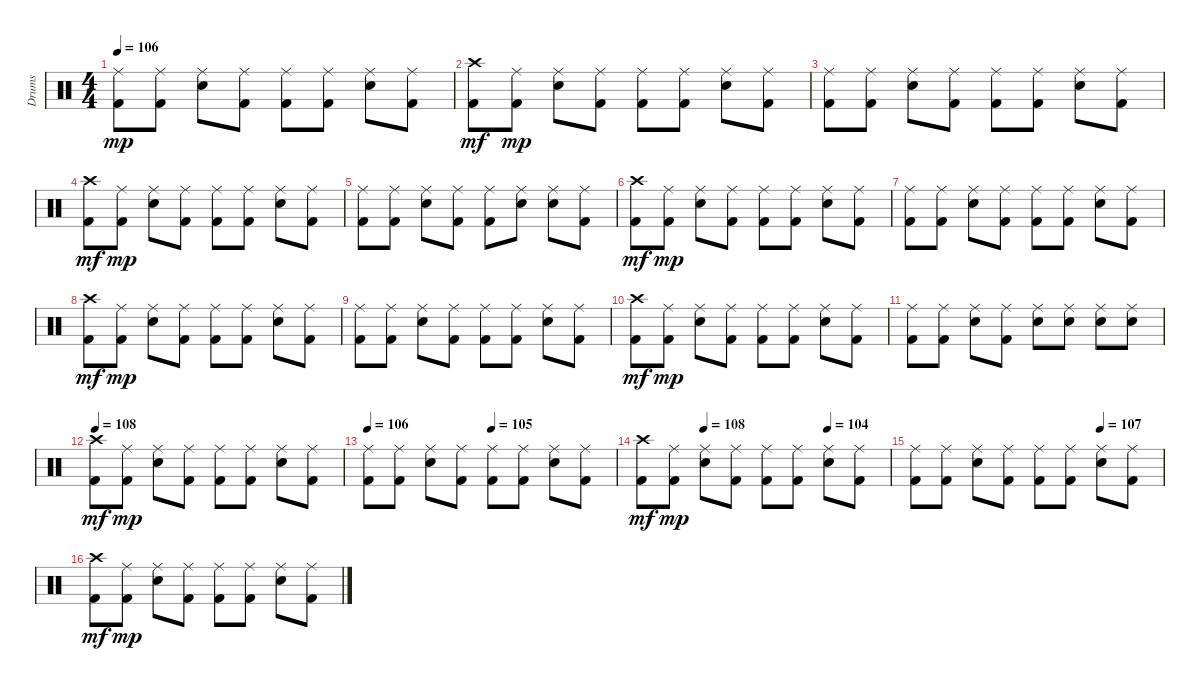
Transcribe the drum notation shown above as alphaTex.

\track ("Drums" "Drums") {instrument percussion}
\staff {score}
\articulation defaults
\ts (4 4)
\tempo 106
\clef neutral
\ks c
("Ride (middle)" "Kick (hit) 2").8{dy mp} ("Ride (middle)" "Kick (hit) 2").8 ("Ride (middle)" "Electric Snare (hit)").8 ("Ride (middle)" "Kick (hit) 2").8 ("Kick (hit) 2" "Ride (middle)").8 ("Ride (middle)" "Kick (hit) 2").8 ("Ride (middle)" "Electric Snare (hit)").8 ("Ride (middle)" "Kick (hit) 2").8 |
("Crash high (hit)" "Kick (hit) 2").8{dy mf} ("Kick (hit) 2" "Ride (middle)").8{dy mp} ("Electric Snare (hit)" "Ride (middle)").8 ("Ride (middle)" "Kick (hit) 2").8 ("Kick (hit) 2" "Ride (middle)").8 ("Ride (middle)" "Kick (hit) 2").8 ("Ride (middle)" "Electric Snare (hit)").8 ("Ride (middle)" "Kick (hit) 2").8 |
("Kick (hit) 2" "Ride (middle)").8 ("Kick (hit) 2" "Ride (middle)").8 ("Ride (middle)" "Electric Snare (hit)").8 ("Kick (hit) 2" "Ride (middle)").8 ("Ride (middle)" "Kick (hit) 2").8 ("Ride (middle)" "Kick (hit) 2").8 ("Electric Snare (hit)" "Ride (middle)").8 ("Kick (hit) 2" "Ride (middle)").8 |
("Kick (hit) 2" "Crash high (hit)").8{dy mf} ("Kick (hit) 2" "Ride (middle)").8{dy mp} ("Electric Snare (hit)" "Ride (middle)").8 ("Kick (hit) 2" "Ride (middle)").8 ("Kick (hit) 2" "Ride (middle)").8 ("Ride (middle)" "Kick (hit) 2").8 ("Ride (middle)" "Electric Snare (hit)").8 ("Kick (hit) 2" "Ride (middle)").8 |
("Kick (hit) 2" "Ride (middle)").8 ("Kick (hit) 2" "Ride (middle)").8 ("Electric Snare (hit)" "Ride (middle)").8 ("Ride (middle)" "Kick (hit) 2").8 ("Kick (hit) 2" "Ride (middle)").8 ("Electric Snare (hit)" "Ride (middle)").8 ("Ride (middle)" "Electric Snare (hit)").8 ("Ride (middle)" "Kick (hit) 2").8 |
("Kick (hit) 2" "Crash high (hit)").8{dy mf} ("Kick (hit) 2" "Ride (middle)").8{dy mp} ("Electric Snare (hit)" "Ride (middle)").8 ("Ride (middle)" "Kick (hit) 2").8 ("Ride (middle)" "Kick (hit) 2").8 ("Kick (hit) 2" "Ride (middle)").8 ("Ride (middle)" "Electric Snare (hit)").8 ("Kick (hit) 2" "Ride (middle)").8 |
("Kick (hit) 2" "Ride (middle)").8 ("Ride (middle)" "Kick (hit) 2").8 ("Ride (middle)" "Electric Snare (hit)").8 ("Ride (middle)" "Kick (hit) 2").8 ("Kick (hit) 2" "Ride (middle)").8 ("Kick (hit) 2" "Ride (middle)").8 ("Ride (middle)" "Electric Snare (hit)").8 ("Kick (hit) 2" "Ride (middle)").8 |
("Kick (hit) 2" "Crash high (hit)").8{dy mf} ("Kick (hit) 2" "Ride (middle)").8{dy mp} ("Electric Snare (hit)" "Ride (middle)").8 ("Kick (hit) 2" "Ride (middle)").8 ("Kick (hit) 2" "Ride (middle)").8 ("Kick (hit) 2" "Ride (middle)").8 ("Electric Snare (hit)" "Ride (middle)").8 ("Kick (hit) 2" "Ride (middle)").8 |
("Kick (hit) 2" "Ride (middle)").8 ("Kick (hit) 2" "Ride (middle)").8 ("Electric Snare (hit)" "Ride (middle)").8 ("Ride (middle)" "Kick (hit) 2").8 ("Ride (middle)" "Kick (hit) 2").8 ("Ride (middle)" "Kick (hit) 2").8 ("Electric Snare (hit)" "Ride (middle)").8 ("Kick (hit) 2" "Ride (middle)").8 |
("Kick (hit) 2" "Crash high (hit)").8{dy mf} ("Kick (hit) 2" "Ride (middle)").8{dy mp} ("Electric Snare (hit)" "Ride (middle)").8 ("Kick (hit) 2" "Ride (middle)").8 ("Kick (hit) 2" "Ride (middle)").8 ("Kick (hit) 2" "Ride (middle)").8 ("Electric Snare (hit)" "Ride (middle)").8 ("Ride (middle)" "Kick (hit) 2").8 |
("Ride (middle)" "Kick (hit) 2").8 ("Ride (middle)" "Kick (hit) 2").8 ("Electric Snare (hit)" "Ride (middle)").8 ("Ride (middle)" "Kick (hit) 2").8 ("Electric Snare (hit)" "Ride (middle)").8 ("Ride (middle)" "Electric Snare (hit)").8 ("Electric Snare (hit)" "Ride (middle)").8 ("Electric Snare (hit)" "Ride (middle)").8 |
\tempo 108
("Crash high (hit)" "Kick (hit) 2").8{dy mf} ("Kick (hit) 2" "Ride (middle)").8{dy mp} ("Ride (middle)" "Electric Snare (hit)").8 ("Ride (middle)" "Kick (hit) 2").8 ("Ride (middle)" "Kick (hit) 2").8 ("Ride (middle)" "Kick (hit) 2").8 ("Electric Snare (hit)" "Ride (middle)").8 ("Kick (hit) 2" "Ride (middle)").8 |
\tempo 106
\tempo (105 0.5)
("Kick (hit) 2" "Ride (middle)").8 ("Ride (middle)" "Kick (hit) 2").8 ("Electric Snare (hit)" "Ride (middle)").8 ("Ride (middle)" "Kick (hit) 2").8 ("Kick (hit) 2" "Ride (middle)").8 ("Kick (hit) 2" "Ride (middle)").8 ("Electric Snare (hit)" "Ride (middle)").8 ("Ride (middle)" "Kick (hit) 2").8 |
\tempo (108 0.25)
\tempo (104 0.75)
("Kick (hit) 2" "Crash high (hit)").8{dy mf} ("Ride (middle)" "Kick (hit) 2").8{dy mp} ("Ride (middle)" "Electric Snare (hit)").8 ("Ride (middle)" "Kick (hit) 2").8 ("Ride (middle)" "Kick (hit) 2").8 ("Ride (middle)" "Kick (hit) 2").8 ("Ride (middle)" "Electric Snare (hit)").8 ("Kick (hit) 2" "Ride (middle)").8 |
\tempo (107 0.75)
("Ride (middle)" "Kick (hit) 2").8 ("Kick (hit) 2" "Ride (middle)").8 ("Electric Snare (hit)" "Ride (middle)").8 ("Ride (middle)" "Kick (hit) 2").8 ("Ride (middle)" "Kick (hit) 2").8 ("Ride (middle)" "Kick (hit) 2").8 ("Ride (middle)" "Electric Snare (hit)").8 ("Ride (middle)" "Kick (hit) 2").8 |
("Kick (hit) 2" "Crash high (hit)").8{dy mf} ("Kick (hit) 2" "Ride (middle)").8{dy mp} ("Ride (middle)" "Electric Snare (hit)").8 ("Ride (middle)" "Kick (hit) 2").8 ("Kick (hit) 2" "Ride (middle)").8 ("Ride (middle)" "Kick (hit) 2").8 ("Electric Snare (hit)" "Ride (middle)").8 ("Kick (hit) 2" "Ride (middle)").8
